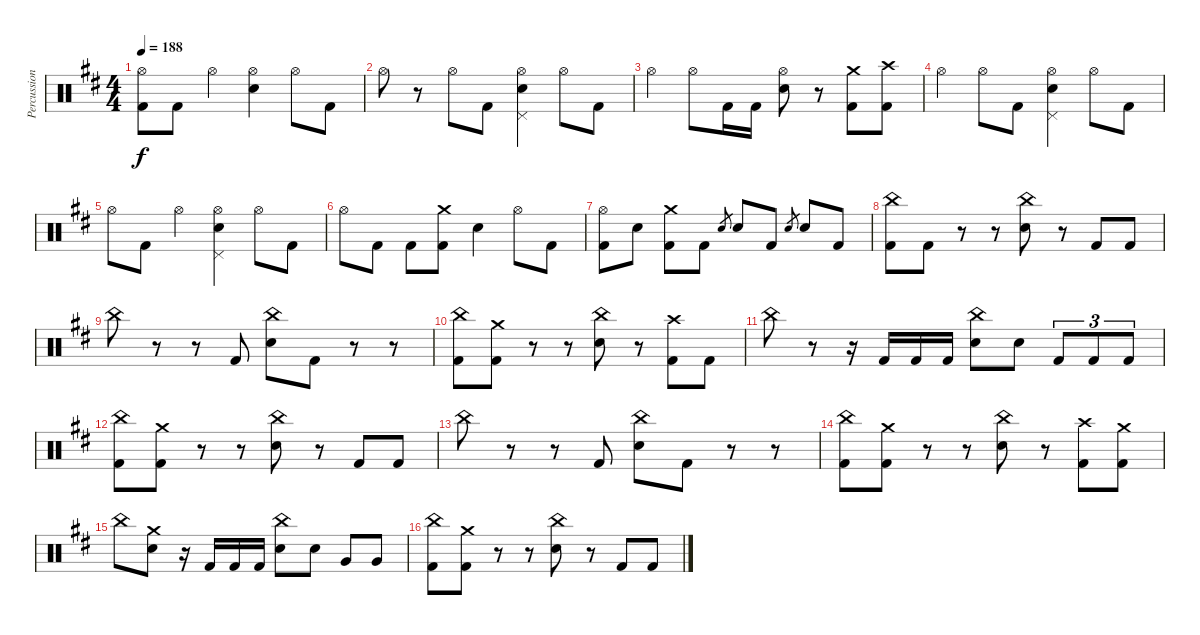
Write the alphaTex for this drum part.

\track ("Percussion" "Percussion") {instrument percussion}
\staff {score}
\articulation defaults
\ts (4 4)
\tempo 188
\clef neutral
\ks bminor
("Hi-Hat (open)" "Kick (hit) 2").8{dy f} "Kick (hit) 2".8 "Hi-Hat (open)".4 ("Electric Snare (hit)" "Hi-Hat (open)").4 "Hi-Hat (open)".8 "Kick (hit) 2".8 |
"Hi-Hat (open)".8 r.8 "Hi-Hat (open)".8 "Kick (hit) 2".8 ("Electric Snare (hit)" "Pedal Hi-Hat (hit)" "Hi-Hat (open)").4 "Hi-Hat (open)".8 "Kick (hit) 2".8 |
"Hi-Hat (open)".4 "Hi-Hat (open)".8 "Kick (hit) 2".16 "Kick (hit) 2".16 ("Electric Snare (hit)" "Hi-Hat (open)").8 r.8 ("Kick (hit) 2" "Crash medium (hit)").8 ("Crash high (hit)" "Kick (hit) 2").8 |
"Hi-Hat (open)".4 "Hi-Hat (open)".8 "Kick (hit) 2".8 ("Pedal Hi-Hat (hit)" "Electric Snare (hit)" "Hi-Hat (open)").4 "Hi-Hat (open)".8 "Kick (hit) 2".8 |
"Hi-Hat (open)".8 "Kick (hit) 2".8 "Hi-Hat (open)".4 ("Pedal Hi-Hat (hit)" "Electric Snare (hit)" "Hi-Hat (open)").4 "Hi-Hat (open)".8 "Kick (hit) 2".8 |
"Hi-Hat (open)".8 "Kick (hit) 2".8 "Kick (hit) 2".8 ("Crash medium (hit)" "Kick (hit) 2").8 "Electric Snare (hit)".4 "Hi-Hat (open)".8 "Kick (hit) 2".8 |
("Hi-Hat (open)" "Kick (hit) 2").8 "Electric Snare (hit)".8 ("Crash medium (hit)" "Kick (hit) 2").8 "Kick (hit) 2".8 "Electric Snare (hit)".8{gr} "Electric Snare (hit)".8 "Kick (hit) 2".8 "Electric Snare (hit)".8{gr} "Electric Snare (hit)".8 "Kick (hit) 2".8 |
("China (hit)" "Kick (hit) 2").8 "Kick (hit) 2".8 r.8 r.8 ("Electric Snare (hit)" "China (hit)").8 r.8 "Kick (hit) 2".8 "Kick (hit) 2".8 |
"China (hit)".8 r.8 r.8 "Kick (hit) 2".8 ("Electric Snare (hit)" "China (hit)").8 "Kick (hit) 2".8 r.8 r.8 |
("China (hit)" "Kick (hit) 2").8 ("Kick (hit) 2" "Crash medium (hit)").8 r.8 r.8 ("Electric Snare (hit)" "China (hit)").8 r.8 ("Kick (hit) 2" "Crash high (hit)").8 "Kick (hit) 2".8 |
"China (hit)".8 r.8 r.16 "Kick (hit) 2".16 "Kick (hit) 2".16 "Kick (hit) 2".16 ("China (hit)" "Electric Snare (hit)").8 "Electric Snare (hit)".8 "Kick (hit) 2".8{tu (3 2)} "Kick (hit) 2".8{tu (3 2)} "Kick (hit) 2".8{tu (3 2)} |
("China (hit)" "Kick (hit) 2").8 ("Kick (hit) 2" "Crash medium (hit)").8 r.8 r.8 ("Electric Snare (hit)" "China (hit)").8 r.8 "Kick (hit) 2".8 "Kick (hit) 2".8 |
"China (hit)".8 r.8 r.8 "Kick (hit) 2".8 ("Electric Snare (hit)" "China (hit)").8 "Kick (hit) 2".8 r.8 r.8 |
("China (hit)" "Kick (hit) 2").8 ("Kick (hit) 2" "Crash medium (hit)").8 r.8 r.8 ("Electric Snare (hit)" "China (hit)").8 r.8 ("Kick (hit) 2" "Crash high (hit)").8 ("Kick (hit) 2" "Crash medium (hit)").8 |
"China (hit)".8 ("Electric Snare (hit)" "Crash medium (hit)").8 r.16 "Kick (hit) 2".16 "Kick (hit) 2".16 "Kick (hit) 2".16 ("China (hit)" "Electric Snare (hit)").8 "Electric Snare (hit)".8 "Very Low Tom (hit)".8 "Very Low Tom (hit)".8 |
("China (hit)" "Kick (hit) 2").8 ("Kick (hit) 2" "Crash medium (hit)").8 r.8 r.8 ("Electric Snare (hit)" "China (hit)").8 r.8 "Kick (hit) 2".8 "Kick (hit) 2".8
